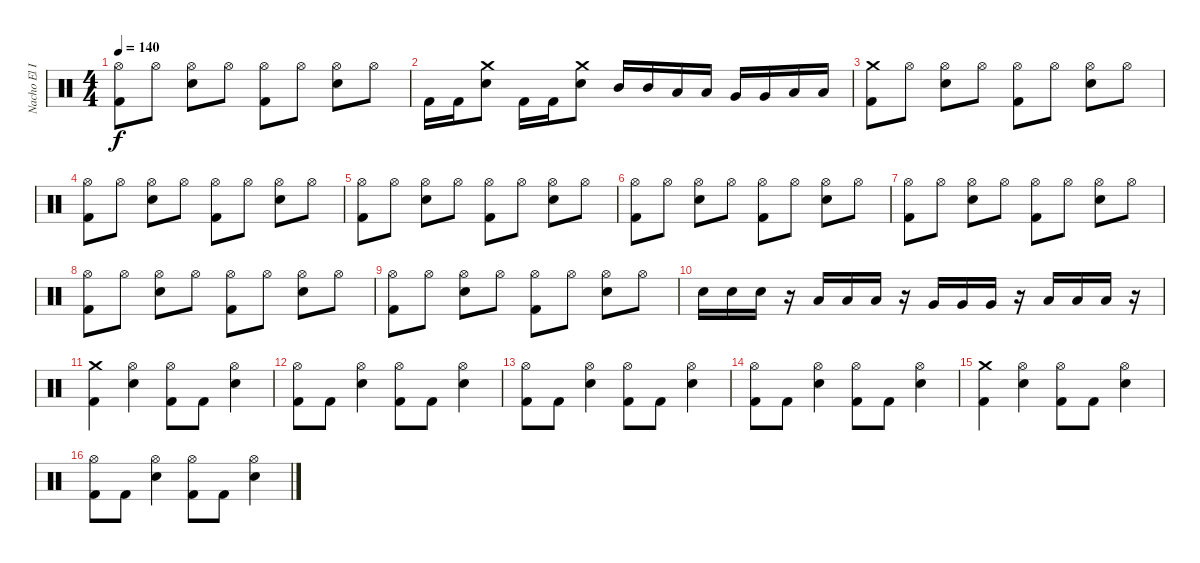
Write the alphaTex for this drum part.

\track ("Nacho El Implacable Gonzalez" "Nacho El I") {instrument percussion}
\staff {score}
\articulation defaults
\ts (4 4)
\tempo 140
\clef neutral
\ks c
("Hi-Hat (open)" "Kick (hit) 2").8{dy f} "Hi-Hat (open)".8 ("Hi-Hat (open)" "Electric Snare (hit)").8 "Hi-Hat (open)".8 ("Hi-Hat (open)" "Kick (hit) 2").8 "Hi-Hat (open)".8 ("Hi-Hat (open)" "Electric Snare (hit)").8 "Hi-Hat (open)".8 |
"Kick (hit) 2".16 "Kick (hit) 2".16 ("Crash medium (hit)" "Electric Snare (hit)").8 "Kick (hit) 2".16 "Kick (hit) 2".16 ("Crash medium (hit)" "Electric Snare (hit)").8 "Mid Tom (hit)".16 "Mid Tom (hit)".16 "Low Tom (hit)".16 "Low Tom (hit)".16 "Very Low Tom (hit)".16 "Very Low Tom (hit)".16 "Low Floor Tom (hit)".16 "Low Floor Tom (hit)".16 |
("Crash medium (hit)" "Kick (hit) 2").8 "Hi-Hat (open)".8 ("Hi-Hat (open)" "Electric Snare (hit)").8 "Hi-Hat (open)".8 ("Hi-Hat (open)" "Kick (hit) 2").8 "Hi-Hat (open)".8 ("Hi-Hat (open)" "Electric Snare (hit)").8 "Hi-Hat (open)".8 |
("Hi-Hat (open)" "Kick (hit) 2").8 "Hi-Hat (open)".8 ("Hi-Hat (open)" "Electric Snare (hit)").8 "Hi-Hat (open)".8 ("Hi-Hat (open)" "Kick (hit) 2").8 "Hi-Hat (open)".8 ("Hi-Hat (open)" "Electric Snare (hit)").8 "Hi-Hat (open)".8 |
("Hi-Hat (open)" "Kick (hit) 2").8 "Hi-Hat (open)".8 ("Hi-Hat (open)" "Electric Snare (hit)").8 "Hi-Hat (open)".8 ("Hi-Hat (open)" "Kick (hit) 2").8 "Hi-Hat (open)".8 ("Hi-Hat (open)" "Electric Snare (hit)").8 "Hi-Hat (open)".8 |
("Hi-Hat (open)" "Kick (hit) 2").8 "Hi-Hat (open)".8 ("Hi-Hat (open)" "Electric Snare (hit)").8 "Hi-Hat (open)".8 ("Hi-Hat (open)" "Kick (hit) 2").8 "Hi-Hat (open)".8 ("Hi-Hat (open)" "Electric Snare (hit)").8 "Hi-Hat (open)".8 |
("Hi-Hat (open)" "Kick (hit) 2").8 "Hi-Hat (open)".8 ("Hi-Hat (open)" "Electric Snare (hit)").8 "Hi-Hat (open)".8 ("Hi-Hat (open)" "Kick (hit) 2").8 "Hi-Hat (open)".8 ("Hi-Hat (open)" "Electric Snare (hit)").8 "Hi-Hat (open)".8 |
("Hi-Hat (open)" "Kick (hit) 2").8 "Hi-Hat (open)".8 ("Hi-Hat (open)" "Electric Snare (hit)").8 "Hi-Hat (open)".8 ("Hi-Hat (open)" "Kick (hit) 2").8 "Hi-Hat (open)".8 ("Hi-Hat (open)" "Electric Snare (hit)").8 "Hi-Hat (open)".8 |
("Hi-Hat (open)" "Kick (hit) 2").8 "Hi-Hat (open)".8 ("Hi-Hat (open)" "Electric Snare (hit)").8 "Hi-Hat (open)".8 ("Hi-Hat (open)" "Kick (hit) 2").8 "Hi-Hat (open)".8 ("Hi-Hat (open)" "Electric Snare (hit)").8 "Hi-Hat (open)".8 |
"Electric Snare (hit)".16 "Electric Snare (hit)".16 "Electric Snare (hit)".16 r.16 "Low Tom (hit)".16 "Low Tom (hit)".16 "Low Tom (hit)".16 r.16 "Very Low Tom (hit)".16 "Very Low Tom (hit)".16 "Very Low Tom (hit)".16 r.16 "Low Floor Tom (hit)".16 "Low Floor Tom (hit)".16 "Low Floor Tom (hit)".16 r.16 |
("Crash medium (hit)" "Kick (hit) 2").4 ("Hi-Hat (open)" "Electric Snare (hit)").4 ("Hi-Hat (open)" "Kick (hit) 2").8 "Kick (hit) 2".8 ("Hi-Hat (open)" "Electric Snare (hit)").4 |
("Hi-Hat (open)" "Kick (hit) 2").8 "Kick (hit) 2".8 ("Hi-Hat (open)" "Electric Snare (hit)").4 ("Hi-Hat (open)" "Kick (hit) 2").8 "Kick (hit) 2".8 ("Hi-Hat (open)" "Electric Snare (hit)").4 |
("Hi-Hat (open)" "Kick (hit) 2").8 "Kick (hit) 2".8 ("Hi-Hat (open)" "Electric Snare (hit)").4 ("Hi-Hat (open)" "Kick (hit) 2").8 "Kick (hit) 2".8 ("Hi-Hat (open)" "Electric Snare (hit)").4 |
("Hi-Hat (open)" "Kick (hit) 2").8 "Kick (hit) 2".8 ("Hi-Hat (open)" "Electric Snare (hit)").4 ("Hi-Hat (open)" "Kick (hit) 2").8 "Kick (hit) 2".8 ("Hi-Hat (open)" "Electric Snare (hit)").4 |
("Crash medium (hit)" "Kick (hit) 2").4 ("Hi-Hat (open)" "Electric Snare (hit)").4 ("Hi-Hat (open)" "Kick (hit) 2").8 "Kick (hit) 2".8 ("Hi-Hat (open)" "Electric Snare (hit)").4 |
("Hi-Hat (open)" "Kick (hit) 2").8 "Kick (hit) 2".8 ("Hi-Hat (open)" "Electric Snare (hit)").4 ("Hi-Hat (open)" "Kick (hit) 2").8 "Kick (hit) 2".8 ("Hi-Hat (open)" "Electric Snare (hit)").4
